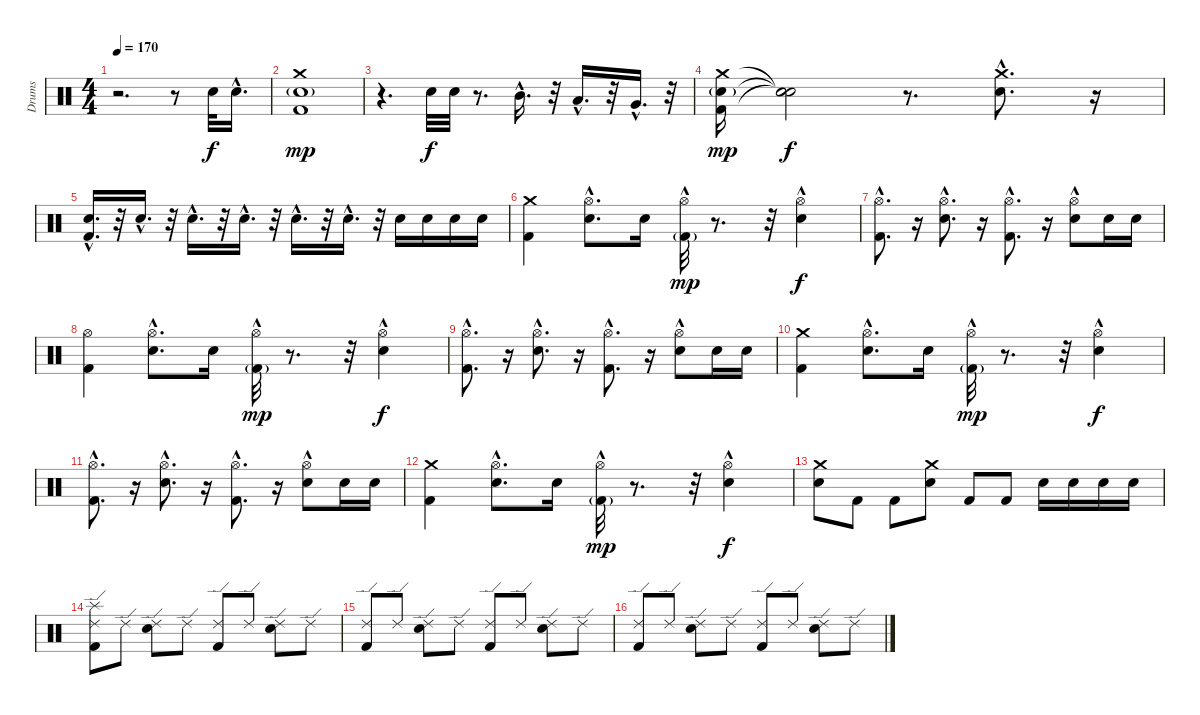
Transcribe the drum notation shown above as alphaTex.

\track ("Drums" "Drums") {instrument percussion}
\staff {score}
\articulation defaults
\ts (4 4)
\tempo 170
\clef neutral
\ks c
r.2{d dy f} r.8 "Electric Snare (hit)".32 "Electric Snare (hit)"{hac}.16{d} |
("Electric Snare (hit)"{g} "Kick (hit) 2" "Crash medium (hit)").1{dy mp} |
r.4{d} "Electric Snare (hit)".32{dy f} "Electric Snare (hit)".32 r.8{d} "Mid Tom (hit)"{hac}.16{d} r.32 "Low Tom (hit)"{hac}.16{d} r.32 "Very Low Tom (hit)"{hac}.16{d} r.32 |
("Electric Snare (hit)"{g} "Kick (hit) 2" "Crash medium (hit)").16{dy mp} ("Snare (hit)"{t} "Snare (hit)"{t} "Snare (hit)"{t}).2{dy f} r.8{d} ("Electric Snare (hit)"{hac} "Crash medium (hit)"{hac}).8{d} r.16 |
("Kick (hit) 2"{hac} "Electric Snare (hit)"{hac}).16{d} r.32 "Electric Snare (hit)"{hac}.16{d} r.32 "Electric Snare (hit)"{hac}.16{d} r.32 "Electric Snare (hit)"{hac}.16{d} r.32 "Electric Snare (hit)"{hac}.16{d} r.32 "Electric Snare (hit)"{hac}.16{d} r.32 "Electric Snare (hit)".16 "Electric Snare (hit)".16 "Electric Snare (hit)".16 "Electric Snare (hit)".16 |
("Crash medium (hit)" "Kick (hit) 2").4 ("Hi-Hat (open)"{hac} "Electric Snare (hit)").8{d} "Electric Snare (hit)".16 ("Hi-Hat (open)"{hac} "Kick (hit) 2"{g}).32{dy mp} r.8{d} r.32 ("Hi-Hat (open)" "Electric Snare (hit)"{hac}).4{dy f} |
("Hi-Hat (open)"{hac} "Kick (hit) 2"{hac}).8{d} r.16 ("Hi-Hat (open)"{hac} "Electric Snare (hit)"{hac}).8{d} r.16 ("Hi-Hat (open)"{hac} "Kick (hit) 2"{hac}).8{d} r.16 ("Hi-Hat (open)"{hac} "Electric Snare (hit)"{hac}).8 "Electric Snare (hit)".16 "Electric Snare (hit)".16 |
("Hi-Hat (open)" "Kick (hit) 2").4 ("Hi-Hat (open)"{hac} "Electric Snare (hit)").8{d} "Electric Snare (hit)".16 ("Hi-Hat (open)"{hac} "Kick (hit) 2"{g}).32{dy mp} r.8{d} r.32 ("Hi-Hat (open)" "Electric Snare (hit)"{hac}).4{dy f} |
("Hi-Hat (open)"{hac} "Kick (hit) 2"{hac}).8{d} r.16 ("Hi-Hat (open)"{hac} "Electric Snare (hit)"{hac}).8{d} r.16 ("Hi-Hat (open)"{hac} "Kick (hit) 2"{hac}).8{d} r.16 ("Hi-Hat (open)"{hac} "Electric Snare (hit)"{hac}).8 "Electric Snare (hit)".16 "Electric Snare (hit)".16 |
("Crash medium (hit)" "Kick (hit) 2").4 ("Hi-Hat (open)"{hac} "Electric Snare (hit)").8{d} "Electric Snare (hit)".16 ("Hi-Hat (open)"{hac} "Kick (hit) 2"{g}).32{dy mp} r.8{d} r.32 ("Hi-Hat (open)" "Electric Snare (hit)"{hac}).4{dy f} |
("Hi-Hat (open)"{hac} "Kick (hit) 2"{hac}).8{d} r.16 ("Hi-Hat (open)"{hac} "Electric Snare (hit)"{hac}).8{d} r.16 ("Hi-Hat (open)"{hac} "Kick (hit) 2"{hac}).8{d} r.16 ("Hi-Hat (open)"{hac} "Electric Snare (hit)"{hac}).8 "Electric Snare (hit)".16 "Electric Snare (hit)".16 |
("Crash medium (hit)" "Kick (hit) 2").4 ("Hi-Hat (open)"{hac} "Electric Snare (hit)").8{d} "Electric Snare (hit)".16 ("Hi-Hat (open)"{hac} "Kick (hit) 2"{g}).32{dy mp} r.8{d} r.32 ("Hi-Hat (open)" "Electric Snare (hit)"{hac}).4{dy f} |
("Electric Snare (hit)" "Crash medium (hit)").8 "Kick (hit) 2".8 "Kick (hit) 2".8 ("Electric Snare (hit)" "Crash medium (hit)").8 "Kick (hit) 2".8 "Kick (hit) 2".8 "Electric Snare (hit)".16 "Electric Snare (hit)".16 "Electric Snare (hit)".16 "Electric Snare (hit)".16 |
("Kick (hit) 2" "Ride (edge) 2" "Splash (hit)").8 "Ride (edge) 2".8 ("Electric Snare (hit)" "Ride (edge) 2").8 "Ride (edge) 2".8 ("Kick (hit) 2" "Ride (edge) 2").8 "Ride (edge) 2".8 ("Electric Snare (hit)" "Ride (edge) 2").8 "Ride (edge) 2".8 |
("Kick (hit) 2" "Ride (edge) 2").8 "Ride (edge) 2".8 ("Electric Snare (hit)" "Ride (edge) 2").8 "Ride (edge) 2".8 ("Kick (hit) 2" "Ride (edge) 2").8 "Ride (edge) 2".8 ("Electric Snare (hit)" "Ride (edge) 2").8 "Ride (edge) 2".8 |
("Kick (hit) 2" "Ride (edge) 2").8 "Ride (edge) 2".8 ("Electric Snare (hit)" "Ride (edge) 2").8 "Ride (edge) 2".8 ("Kick (hit) 2" "Ride (edge) 2").8 "Ride (edge) 2".8 ("Electric Snare (hit)" "Ride (edge) 2").8 "Ride (edge) 2".8
